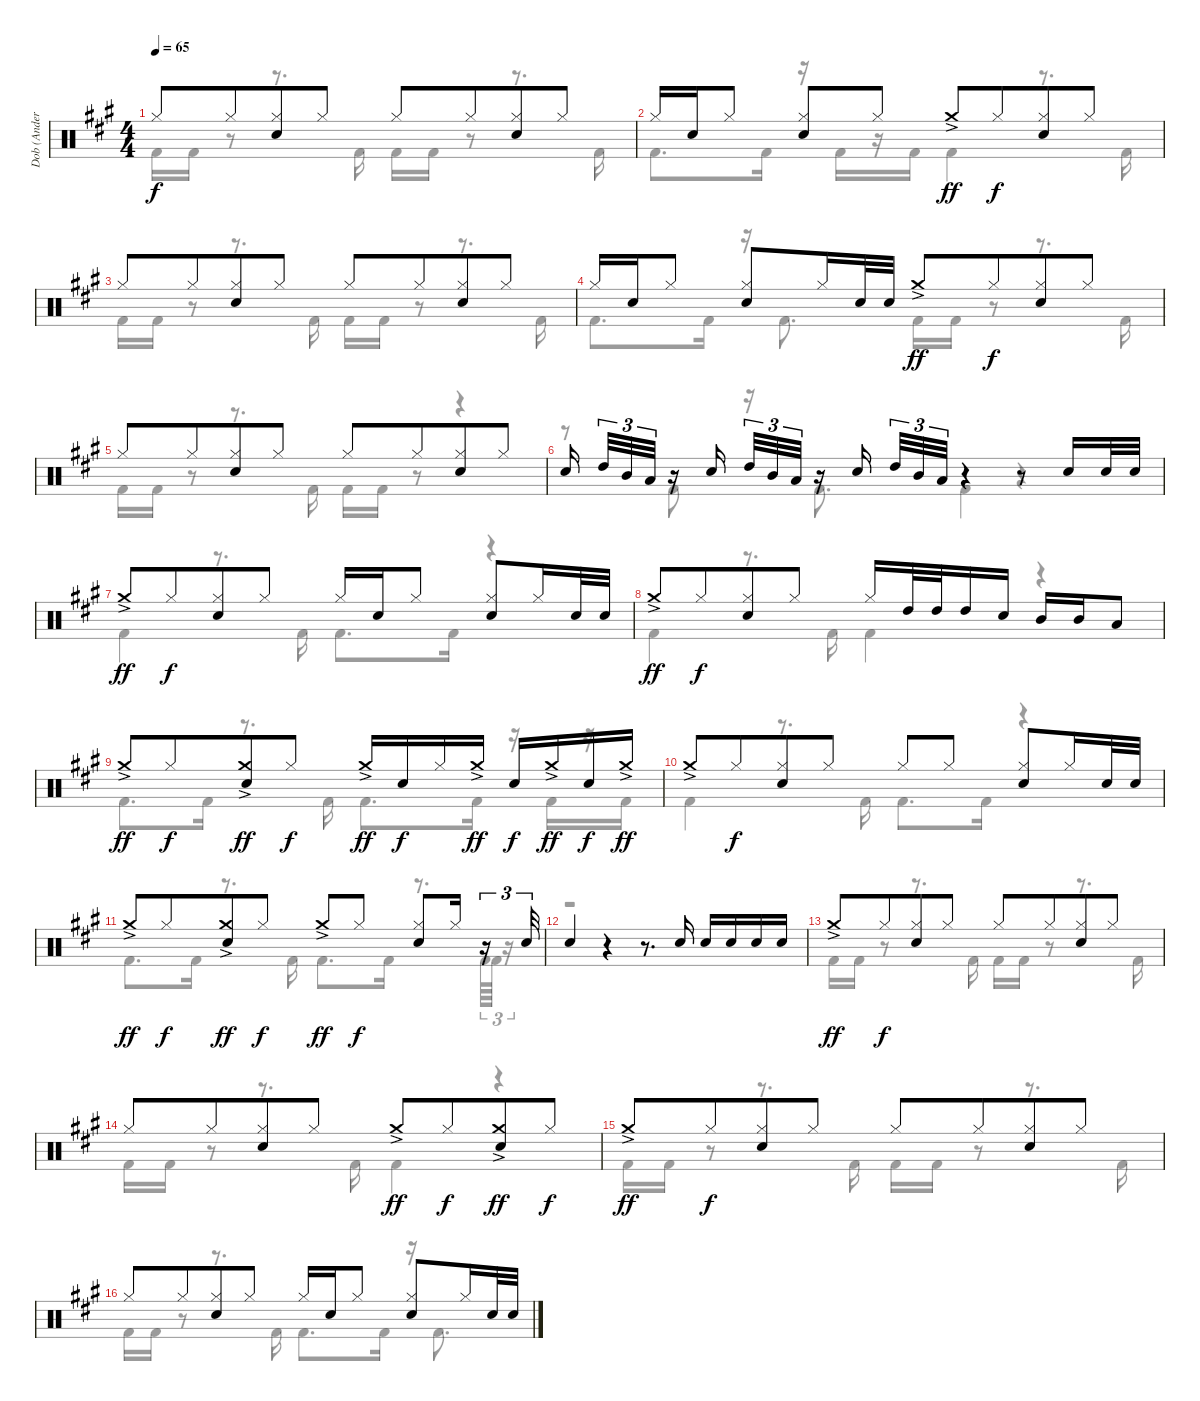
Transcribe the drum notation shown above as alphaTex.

\track ("Dob (Anders Johansson)" "Dob (Ander") {instrument percussion}
\staff {score}
\articulation defaults
\voice
\ts (4 4)
\tempo 65
\clef neutral
\ks a "Hi-Hat (closed)".8{dy f} "Hi-Hat (closed)".8{beam merge}
("Hi-Hat (closed)" "Electric Snare (hit)").8 "Hi-Hat (closed)".8 "Hi-Hat (closed)".8 "Hi-Hat (closed)".8{beam merge} ("Hi-Hat (closed)" "Electric Snare (hit)").8 "Hi-Hat (closed)".8 |
"Hi-Hat (closed)".16 "Electric Snare (hit)".16 "Hi-Hat (closed)".8 ("Hi-Hat (closed)" "Electric Snare (hit)").8 "Hi-Hat (closed)".8 "Crash medium (hit)"{ac}.8{dy ff} "Hi-Hat (closed)".8{dy f beam merge} ("Hi-Hat (closed)" "Electric Snare (hit)").8 "Hi-Hat (closed)".8 |
"Hi-Hat (closed)".8 "Hi-Hat (closed)".8{beam merge} ("Hi-Hat (closed)" "Electric Snare (hit)").8 "Hi-Hat (closed)".8 "Hi-Hat (closed)".8 "Hi-Hat (closed)".8{beam merge} ("Hi-Hat (closed)" "Electric Snare (hit)").8 "Hi-Hat (closed)".8 |
"Hi-Hat (closed)".16 "Electric Snare (hit)".16 "Hi-Hat (closed)".8 ("Hi-Hat (closed)" "Electric Snare (hit)").8 "Hi-Hat (closed)".16 "Electric Snare (hit)".32 "Electric Snare (hit)".32 "Crash medium (hit)"{ac}.8{dy ff} "Hi-Hat (closed)".8{dy f beam merge} ("Hi-Hat (closed)" "Electric Snare (hit)").8 "Hi-Hat (closed)".8 |
"Hi-Hat (closed)".8 "Hi-Hat (closed)".8{beam merge} ("Hi-Hat (closed)" "Electric Snare (hit)").8 "Hi-Hat (closed)".8 "Hi-Hat (closed)".8 "Hi-Hat (closed)".8{beam merge} ("Hi-Hat (closed)" "Electric Snare (hit)").8 "Hi-Hat (closed)".8 |
"Electric Snare (hit)".16{beam splitsecondary} "High Tom (hit)".32{tu (3 2)} "Mid Tom (hit)".32{tu (3 2)} "Low Tom (hit)".32{tu (3 2)} r.16 "Electric Snare (hit)".16 "High Tom (hit)".32{tu (3 2)} "Mid Tom (hit)".32{tu (3 2)} "Low Tom (hit)".32{tu (3 2)} r.16 "Electric Snare (hit)".16{beam splitsecondary} "High Tom (hit)".32{tu (3 2)} "Mid Tom (hit)".32{tu (3 2)} "Low Tom (hit)".32{tu (3 2)} r.4 r.8 "Electric Snare (hit)".16 "Electric Snare (hit)".32 "Electric Snare (hit)".32 |
"Crash medium (hit)"{ac}.8{dy ff} "Hi-Hat (closed)".8{dy f beam merge} ("Hi-Hat (closed)" "Electric Snare (hit)").8 "Hi-Hat (closed)".8 "Hi-Hat (closed)".16 "Electric Snare (hit)".16 "Hi-Hat (closed)".8 ("Hi-Hat (closed)" "Electric Snare (hit)").8 "Hi-Hat (closed)".16 "Electric Snare (hit)".32 "Electric Snare (hit)".32 |
"Crash medium (hit)"{ac}.8{dy ff} "Hi-Hat (closed)".8{dy f beam merge} ("Hi-Hat (closed)" "Electric Snare (hit)").8 "Hi-Hat (closed)".8 "Hi-Hat (closed)".16 "High Tom (hit)".32 "High Tom (hit)".32 "High Tom (hit)".16 "Electric Snare (hit)".16 "Mid Tom (hit)".16 "Mid Tom (hit)".16 "Low Tom (hit)".8 |
"Crash medium (hit)"{ac}.8{dy ff} "Hi-Hat (closed)".8{dy f beam merge} ("Crash medium (hit)"{ac} "Electric Snare (hit)").8{dy ff} "Hi-Hat (closed)".8{dy f} "Crash medium (hit)"{ac}.16{dy ff} "Electric Snare (hit)".16{dy f} "Hi-Hat (closed)".16 "Crash medium (hit)"{ac}.16{dy ff} "Electric Snare (hit)".16{dy f} "Crash medium (hit)"{ac}.16{dy ff} "Electric Snare (hit)".16{dy f} "Crash medium (hit)"{ac}.16{dy ff} |
"Crash medium (hit)"{ac}.8 "Hi-Hat (closed)".8{dy f beam merge} ("Hi-Hat (closed)" "Electric Snare (hit)").8 "Hi-Hat (closed)".8 "Hi-Hat (closed)".8 "Hi-Hat (closed)".8 ("Hi-Hat (closed)" "Electric Snare (hit)").8 "Hi-Hat (closed)".16 "Electric Snare (hit)".32 "Electric Snare (hit)".32 |
"Crash medium (hit)"{ac}.8{dy ff} "Hi-Hat (closed)".8{dy f beam merge} ("Crash medium (hit)"{ac} "Electric Snare (hit)").8{dy ff} "Hi-Hat (closed)".8{dy f} "Crash medium (hit)"{ac}.8{dy ff} "Hi-Hat (closed)".8{dy f} ("Hi-Hat (closed)" "Electric Snare (hit)").8 "Hi-Hat (closed)".16 r.16{tu (3 2)} "Electric Snare (hit)".32{tu (3 2)} |
"Electric Snare (hit)".4 r.4 r.8{d} "Electric Snare (hit)".16 "Electric Snare (hit)".16 "Electric Snare (hit)".16 "Electric Snare (hit)".16 "Electric Snare (hit)".16 |
"Crash medium (hit)"{ac}.8{dy ff} "Hi-Hat (closed)".8{dy f beam merge} ("Hi-Hat (closed)" "Electric Snare (hit)").8 "Hi-Hat (closed)".8 "Hi-Hat (closed)".8 "Hi-Hat (closed)".8{beam merge} ("Hi-Hat (closed)" "Electric Snare (hit)").8 "Hi-Hat (closed)".8 |
"Hi-Hat (closed)".8 "Hi-Hat (closed)".8{beam merge} ("Hi-Hat (closed)" "Electric Snare (hit)").8 "Hi-Hat (closed)".8 "Crash medium (hit)"{ac}.8{dy ff} "Hi-Hat (closed)".8{dy f beam merge} ("Crash medium (hit)"{ac} "Electric Snare (hit)").8{dy ff} "Hi-Hat (closed)".8{dy f} |
"Crash medium (hit)"{ac}.8{dy ff} "Hi-Hat (closed)".8{dy f beam merge} ("Hi-Hat (closed)" "Electric Snare (hit)").8 "Hi-Hat (closed)".8 "Hi-Hat (closed)".8 "Hi-Hat (closed)".8{beam merge} ("Hi-Hat (closed)" "Electric Snare (hit)").8 "Hi-Hat (closed)".8 |
"Hi-Hat (closed)".8 "Hi-Hat (closed)".8{beam merge} ("Hi-Hat (closed)" "Electric Snare (hit)").8 "Hi-Hat (closed)".8 "Hi-Hat (closed)".16 "Electric Snare (hit)".16 "Hi-Hat (closed)".8 ("Hi-Hat (closed)" "Electric Snare (hit)").8 "Hi-Hat (closed)".16 "Electric Snare (hit)".32 "Electric Snare (hit)".32
\voice
\clef neutral
\ottava regular
\simile none
\ks a "Kick (hit) 2".16{dy f} "Kick (hit) 2".16
r.8 r.8{d} "Kick (hit) 2".16 "Kick (hit) 2".16 "Kick (hit) 2".16 r.8 r.8{d} "Kick (hit) 2".16 |
"Kick (hit) 2".8{d} "Kick (hit) 2".16 r.16 "Kick (hit) 2".16 r.16 "Kick (hit) 2".16 "Kick (hit) 2".4 r.8{d} "Kick (hit) 2".16 |
"Kick (hit) 2".16 "Kick (hit) 2".16 r.8 r.8{d} "Kick (hit) 2".16 "Kick (hit) 2".16 "Kick (hit) 2".16 r.8 r.8{d} "Kick (hit) 2".16 |
"Kick (hit) 2".8{d} "Kick (hit) 2".16 r.16 "Kick (hit) 2".8{d} "Kick (hit) 2".16 "Kick (hit) 2".16 r.8 r.8{d} "Kick (hit) 2".16 |
"Kick (hit) 2".16 "Kick (hit) 2".16 r.8 r.8{d} "Kick (hit) 2".16 "Kick (hit) 2".16 "Kick (hit) 2".16 r.8 r.4 |
r.8 "Kick (hit) 2".8 r.16 "Kick (hit) 2".8{d} "Kick (hit) 2".4 r.4 |
"Kick (hit) 2".4 r.8{d} "Kick (hit) 2".16 "Kick (hit) 2".8{d} "Kick (hit) 2".16 r.4 |
"Kick (hit) 2".4 r.8{d} "Kick (hit) 2".16 "Kick (hit) 2".4 r.4 |
"Kick (hit) 2".8{d} "Kick (hit) 2".16 r.8{d} "Kick (hit) 2".16 "Kick (hit) 2".8{d} "Kick (hit) 2".16 r.16 "Kick (hit) 2".16 r.16 "Kick (hit) 2".16 |
"Kick (hit) 2".4 r.8{d} "Kick (hit) 2".16 "Kick (hit) 2".8{d} "Kick (hit) 2".16 r.4 |
"Kick (hit) 2".8{d} "Kick (hit) 2".16 r.8{d} "Kick (hit) 2".16 "Kick (hit) 2".8{d} "Kick (hit) 2".16 r.8{d} "Kick (hit) 2".64{tu (3 2)} "Kick (hit) 2".64{tu (3 2)} r.16{tu (3 2)} |
r.1 |
"Kick (hit) 2".16 "Kick (hit) 2".16 r.8 r.8{d} "Kick (hit) 2".16 "Kick (hit) 2".16 "Kick (hit) 2".16 r.8 r.8{d} "Kick (hit) 2".16 |
"Kick (hit) 2".16 "Kick (hit) 2".16 r.8 r.8{d} "Kick (hit) 2".16 "Kick (hit) 2".4 r.4 |
"Kick (hit) 2".16 "Kick (hit) 2".16 r.8 r.8{d} "Kick (hit) 2".16 "Kick (hit) 2".16 "Kick (hit) 2".16 r.8 r.8{d} "Kick (hit) 2".16 |
"Kick (hit) 2".16 "Kick (hit) 2".16 r.8 r.8{d} "Kick (hit) 2".16 "Kick (hit) 2".8{d} "Kick (hit) 2".16 r.16 "Kick (hit) 2".8{d}
